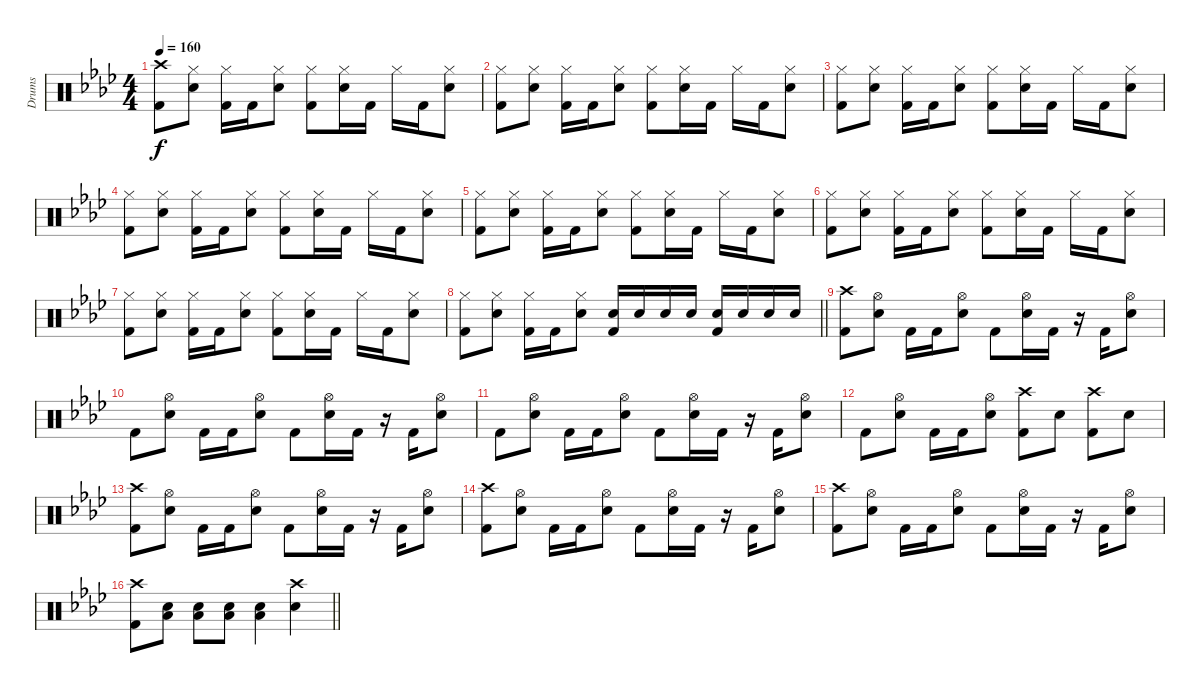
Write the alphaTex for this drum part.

\track ("Drums" "Drums") {instrument percussion}
\staff {score}
\articulation defaults
\ts (4 4)
\tempo 160
\clef neutral
\ks ab
("Crash high (hit)" "Kick (hit) 2").8{dy f} ("Hi-Hat (closed)" "Electric Snare (hit)").8 ("Hi-Hat (closed)" "Kick (hit) 2").16 "Kick (hit) 2".16 ("Hi-Hat (closed)" "Electric Snare (hit)").8 ("Hi-Hat (closed)" "Kick (hit) 2").8 ("Hi-Hat (closed)" "Electric Snare (hit)").16 "Kick (hit) 2".16 "Hi-Hat (closed)".16 "Kick (hit) 2".16 ("Hi-Hat (closed)" "Electric Snare (hit)").8 |
("Hi-Hat (closed)" "Kick (hit) 2").8 ("Hi-Hat (closed)" "Electric Snare (hit)").8 ("Hi-Hat (closed)" "Kick (hit) 2").16 "Kick (hit) 2".16 ("Hi-Hat (closed)" "Electric Snare (hit)").8 ("Hi-Hat (closed)" "Kick (hit) 2").8 ("Hi-Hat (closed)" "Electric Snare (hit)").16 "Kick (hit) 2".16 "Hi-Hat (closed)".16 "Kick (hit) 2".16 ("Hi-Hat (closed)" "Electric Snare (hit)").8 |
("Hi-Hat (closed)" "Kick (hit) 2").8 ("Hi-Hat (closed)" "Electric Snare (hit)").8 ("Hi-Hat (closed)" "Kick (hit) 2").16 "Kick (hit) 2".16 ("Hi-Hat (closed)" "Electric Snare (hit)").8 ("Hi-Hat (closed)" "Kick (hit) 2").8 ("Hi-Hat (closed)" "Electric Snare (hit)").16 "Kick (hit) 2".16 "Hi-Hat (closed)".16 "Kick (hit) 2".16 ("Hi-Hat (closed)" "Electric Snare (hit)").8 |
("Hi-Hat (closed)" "Kick (hit) 2").8 ("Hi-Hat (closed)" "Electric Snare (hit)").8 ("Hi-Hat (closed)" "Kick (hit) 2").16 "Kick (hit) 2".16 ("Hi-Hat (closed)" "Electric Snare (hit)").8 ("Hi-Hat (closed)" "Kick (hit) 2").8 ("Hi-Hat (closed)" "Electric Snare (hit)").16 "Kick (hit) 2".16 "Hi-Hat (closed)".16 "Kick (hit) 2".16 ("Hi-Hat (closed)" "Electric Snare (hit)").8 |
("Hi-Hat (closed)" "Kick (hit) 2").8 ("Hi-Hat (closed)" "Electric Snare (hit)").8 ("Hi-Hat (closed)" "Kick (hit) 2").16 "Kick (hit) 2".16 ("Hi-Hat (closed)" "Electric Snare (hit)").8 ("Hi-Hat (closed)" "Kick (hit) 2").8 ("Hi-Hat (closed)" "Electric Snare (hit)").16 "Kick (hit) 2".16 "Hi-Hat (closed)".16 "Kick (hit) 2".16 ("Hi-Hat (closed)" "Electric Snare (hit)").8 |
("Hi-Hat (closed)" "Kick (hit) 2").8 ("Hi-Hat (closed)" "Electric Snare (hit)").8 ("Hi-Hat (closed)" "Kick (hit) 2").16 "Kick (hit) 2".16 ("Hi-Hat (closed)" "Electric Snare (hit)").8 ("Hi-Hat (closed)" "Kick (hit) 2").8 ("Hi-Hat (closed)" "Electric Snare (hit)").16 "Kick (hit) 2".16 "Hi-Hat (closed)".16 "Kick (hit) 2".16 ("Hi-Hat (closed)" "Electric Snare (hit)").8 |
("Hi-Hat (closed)" "Kick (hit) 2").8 ("Hi-Hat (closed)" "Electric Snare (hit)").8 ("Hi-Hat (closed)" "Kick (hit) 2").16 "Kick (hit) 2".16 ("Hi-Hat (closed)" "Electric Snare (hit)").8 ("Hi-Hat (closed)" "Kick (hit) 2").8 ("Hi-Hat (closed)" "Electric Snare (hit)").16 "Kick (hit) 2".16 "Hi-Hat (closed)".16 "Kick (hit) 2".16 ("Hi-Hat (closed)" "Electric Snare (hit)").8 |
\barLineRight lightlight
("Hi-Hat (closed)" "Kick (hit) 2").8 ("Hi-Hat (closed)" "Electric Snare (hit)").8 ("Hi-Hat (closed)" "Kick (hit) 2").16 "Kick (hit) 2".16 ("Hi-Hat (closed)" "Electric Snare (hit)").8 ("Electric Snare (hit)" "Kick (hit) 2").16 "Electric Snare (hit)".16 "Electric Snare (hit)".16 "Electric Snare (hit)".16 ("Electric Snare (hit)" "Kick (hit) 2").16 "Electric Snare (hit)".16 "Electric Snare (hit)".16 "Electric Snare (hit)".16 |
("Crash high (hit)" "Kick (hit) 2").8 ("Hi-Hat (open)" "Electric Snare (hit)").8 "Kick (hit) 2".16 "Kick (hit) 2".16 ("Hi-Hat (open)" "Electric Snare (hit)").8 "Kick (hit) 2".8 ("Hi-Hat (open)" "Electric Snare (hit)").16 "Kick (hit) 2".16 r.16 "Kick (hit) 2".16 ("Hi-Hat (open)" "Electric Snare (hit)").8 |
"Kick (hit) 2".8 ("Hi-Hat (open)" "Electric Snare (hit)").8 "Kick (hit) 2".16 "Kick (hit) 2".16 ("Hi-Hat (open)" "Electric Snare (hit)").8 "Kick (hit) 2".8 ("Hi-Hat (open)" "Electric Snare (hit)").16 "Kick (hit) 2".16 r.16 "Kick (hit) 2".16 ("Hi-Hat (open)" "Electric Snare (hit)").8 |
"Kick (hit) 2".8 ("Hi-Hat (open)" "Electric Snare (hit)").8 "Kick (hit) 2".16 "Kick (hit) 2".16 ("Hi-Hat (open)" "Electric Snare (hit)").8 "Kick (hit) 2".8 ("Hi-Hat (open)" "Electric Snare (hit)").16 "Kick (hit) 2".16 r.16 "Kick (hit) 2".16 ("Hi-Hat (open)" "Electric Snare (hit)").8 |
"Kick (hit) 2".8 ("Hi-Hat (open)" "Electric Snare (hit)").8 "Kick (hit) 2".16 "Kick (hit) 2".16 ("Hi-Hat (open)" "Electric Snare (hit)").8 ("Crash high (hit)" "Kick (hit) 2").8 "Electric Snare (hit)".8 ("Crash high (hit)" "Kick (hit) 2").8 "Electric Snare (hit)".8 |
("Crash high (hit)" "Kick (hit) 2").8 ("Hi-Hat (open)" "Electric Snare (hit)").8 "Kick (hit) 2".16 "Kick (hit) 2".16 ("Hi-Hat (open)" "Electric Snare (hit)").8 "Kick (hit) 2".8 ("Hi-Hat (open)" "Electric Snare (hit)").16 "Kick (hit) 2".16 r.16 "Kick (hit) 2".16 ("Hi-Hat (open)" "Electric Snare (hit)").8 |
("Crash high (hit)" "Kick (hit) 2").8 ("Hi-Hat (open)" "Electric Snare (hit)").8 "Kick (hit) 2".16 "Kick (hit) 2".16 ("Hi-Hat (open)" "Electric Snare (hit)").8 "Kick (hit) 2".8 ("Hi-Hat (open)" "Electric Snare (hit)").16 "Kick (hit) 2".16 r.16 "Kick (hit) 2".16 ("Hi-Hat (open)" "Electric Snare (hit)").8 |
("Crash high (hit)" "Kick (hit) 2").8 ("Hi-Hat (open)" "Electric Snare (hit)").8 "Kick (hit) 2".16 "Kick (hit) 2".16 ("Hi-Hat (open)" "Electric Snare (hit)").8 "Kick (hit) 2".8 ("Hi-Hat (open)" "Electric Snare (hit)").16 "Kick (hit) 2".16 r.16 "Kick (hit) 2".16 ("Hi-Hat (open)" "Electric Snare (hit)").8 |
\barLineRight lightlight
("Crash high (hit)" "Kick (hit) 2").8 ("Electric Snare (hit)" "Low Floor Tom (hit)").8 ("Electric Snare (hit)" "Low Floor Tom (hit)").8 ("Electric Snare (hit)" "Low Floor Tom (hit)").8 ("Electric Snare (hit)" "Low Floor Tom (hit)").4 ("Crash high (hit)" "Electric Snare (hit)").4
